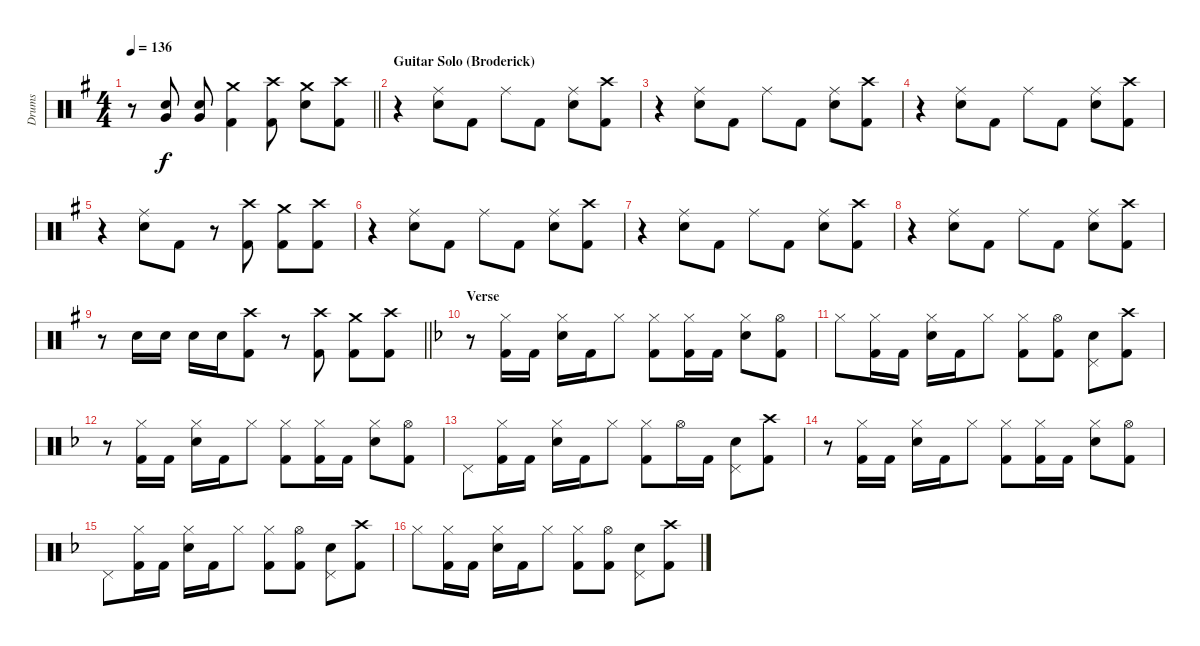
\track ("Drums" "Drums") {instrument percussion}
\staff {score}
\articulation defaults
\ts (4 4)
\tempo 136
\clef neutral
\barLineRight lightlight
\ks eminor
r.8{dy f} ("Very Low Tom (hit)" "Snare (hit) 2").8 ("Very Low Tom (hit)" "Snare (hit) 2").8 ("Crash medium (hit)" "Kick (hit) 2").4 ("Crash high (hit)" "Kick (hit) 2").8 ("Crash medium (hit)" "Snare (hit) 2").8 ("Crash high (hit)" "Kick (hit) 2").8 |
\section ("" "Guitar Solo (Broderick)")
r.4 ("Ride (middle)" "Snare (hit) 2").8 "Kick (hit) 2".8 "Ride (middle)".8 "Kick (hit) 2".8 ("Ride (middle)" "Snare (hit) 2").8 ("Crash high (hit)" "Kick (hit) 2").8 |
r.4 ("Ride (middle)" "Snare (hit) 2").8 "Kick (hit) 2".8 "Ride (middle)".8 "Kick (hit) 2".8 ("Ride (middle)" "Snare (hit) 2").8 ("Crash high (hit)" "Kick (hit) 2").8 |
r.4 ("Ride (middle)" "Snare (hit) 2").8 "Kick (hit) 2".8 "Ride (middle)".8 "Kick (hit) 2".8 ("Ride (middle)" "Snare (hit) 2").8 ("Crash high (hit)" "Kick (hit) 2").8 |
r.4 ("Ride (middle)" "Snare (hit) 2").8 "Kick (hit) 2".8 r.8 ("Crash high (hit)" "Kick (hit) 2").8 ("Crash medium (hit)" "Kick (hit) 2").8 ("Crash high (hit)" "Kick (hit) 2").8 |
r.4 ("Ride (middle)" "Snare (hit) 2").8 "Kick (hit) 2".8 "Ride (middle)".8 "Kick (hit) 2".8 ("Ride (middle)" "Snare (hit) 2").8 ("Crash high (hit)" "Kick (hit) 2").8 |
r.4 ("Ride (middle)" "Snare (hit) 2").8 "Kick (hit) 2".8 "Ride (middle)".8 "Kick (hit) 2".8 ("Ride (middle)" "Snare (hit) 2").8 ("Crash high (hit)" "Kick (hit) 2").8 |
r.4 ("Ride (middle)" "Snare (hit) 2").8 "Kick (hit) 2".8 "Ride (middle)".8 "Kick (hit) 2".8 ("Ride (middle)" "Snare (hit) 2").8 ("Crash high (hit)" "Kick (hit) 2").8 |
\barLineRight lightlight
r.8 "Snare (hit) 2".16 "Snare (hit) 2".16 "Snare (hit) 2".16 "Snare (hit) 2".16 ("Crash high (hit)" "Kick (hit) 2").8 r.8 ("Crash high (hit)" "Kick (hit) 2").8 ("Crash medium (hit)" "Kick (hit) 2").8 ("Crash high (hit)" "Kick (hit) 2").8 |
\section ("" "Verse")
\ks dminor
r.8 ("Hi-Hat (closed)" "Kick (hit) 2").16 "Kick (hit) 2".16 ("Hi-Hat (closed)" "Snare (hit) 2").16 "Kick (hit) 2".16 "Hi-Hat (closed)".8 ("Hi-Hat (closed)" "Kick (hit) 2").8 ("Hi-Hat (closed)" "Kick (hit) 2").16 "Kick (hit) 2".16 ("Hi-Hat (closed)" "Snare (hit) 2").8 ("Hi-Hat (open)" "Kick (hit) 2").8 |
"Hi-Hat (closed)".8 ("Hi-Hat (closed)" "Kick (hit) 2").16 "Kick (hit) 2".16 ("Hi-Hat (closed)" "Snare (hit) 2").16 "Kick (hit) 2".16 "Hi-Hat (closed)".8 ("Hi-Hat (closed)" "Kick (hit) 2").8 ("Hi-Hat (open)" "Kick (hit) 2").8 ("Pedal Hi-Hat (hit)" "Snare (hit) 2").8 ("Crash high (hit)" "Kick (hit) 2").8 |
r.8 ("Hi-Hat (closed)" "Kick (hit) 2").16 "Kick (hit) 2".16 ("Hi-Hat (closed)" "Snare (hit) 2").16 "Kick (hit) 2".16 "Hi-Hat (closed)".8 ("Hi-Hat (closed)" "Kick (hit) 2").8 ("Hi-Hat (closed)" "Kick (hit) 2").16 "Kick (hit) 2".16 ("Hi-Hat (closed)" "Snare (hit) 2").8 ("Hi-Hat (open)" "Kick (hit) 2").8 |
"Pedal Hi-Hat (hit)".8 ("Hi-Hat (closed)" "Kick (hit) 2").16 "Kick (hit) 2".16 ("Hi-Hat (closed)" "Snare (hit) 2").16 "Kick (hit) 2".16 "Hi-Hat (closed)".8 ("Hi-Hat (closed)" "Kick (hit) 2").8 "Hi-Hat (open)".16 "Kick (hit) 2".16 ("Pedal Hi-Hat (hit)" "Snare (hit) 2").8 ("Crash high (hit)" "Kick (hit) 2").8 |
r.8 ("Hi-Hat (closed)" "Kick (hit) 2").16 "Kick (hit) 2".16 ("Hi-Hat (closed)" "Snare (hit) 2").16 "Kick (hit) 2".16 "Hi-Hat (closed)".8 ("Hi-Hat (closed)" "Kick (hit) 2").8 ("Hi-Hat (closed)" "Kick (hit) 2").16 "Kick (hit) 2".16 ("Hi-Hat (closed)" "Snare (hit) 2").8 ("Hi-Hat (open)" "Kick (hit) 2").8 |
"Pedal Hi-Hat (hit)".8 ("Hi-Hat (closed)" "Kick (hit) 2").16 "Kick (hit) 2".16 ("Hi-Hat (closed)" "Snare (hit) 2").16 "Kick (hit) 2".16 "Hi-Hat (closed)".8 ("Hi-Hat (closed)" "Kick (hit) 2").8 ("Hi-Hat (open)" "Kick (hit) 2").8 ("Pedal Hi-Hat (hit)" "Snare (hit) 2").8 ("Crash high (hit)" "Kick (hit) 2").8 |
"Hi-Hat (closed)".8 ("Hi-Hat (closed)" "Kick (hit) 2").16 "Kick (hit) 2".16 ("Hi-Hat (closed)" "Snare (hit) 2").16 "Kick (hit) 2".16 "Hi-Hat (closed)".8 ("Hi-Hat (closed)" "Kick (hit) 2").8 ("Hi-Hat (open)" "Kick (hit) 2").8 ("Pedal Hi-Hat (hit)" "Snare (hit) 2").8 ("Crash high (hit)" "Kick (hit) 2").8
